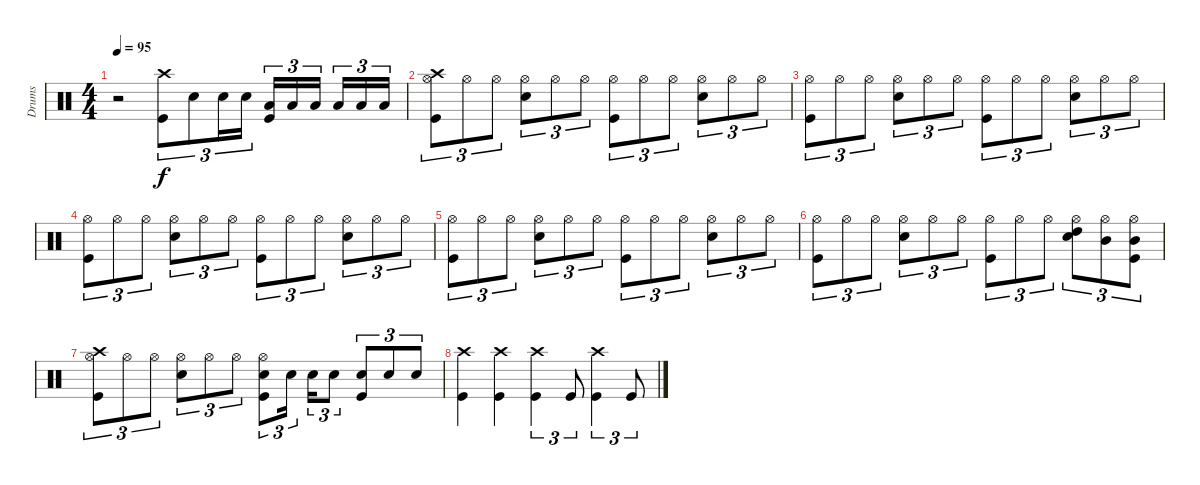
\track ("Drums" "Drums") {instrument percussion}
\staff {score}
\articulation defaults
\ts (4 4)
\tempo 95
\clef neutral
\ks c
r.2{dy f} ("Crash high (hit)" "Kick (hit)").8{tu (3 2)} "Electric Snare (hit)".8{tu (3 2)} "Electric Snare (hit)".16{tu (3 2)} "Electric Snare (hit)".16{tu (3 2)} ("Low Tom (hit)" "Kick (hit)").16{tu (3 2)} "Low Tom (hit)".16{tu (3 2)} "Low Tom (hit)".16{tu (3 2)} "Low Tom (hit)".16{tu (3 2)} "Low Floor Tom (hit)".16{tu (3 2)} "Low Floor Tom (hit)".16{tu (3 2)} |
("Crash high (hit)" "Hi-Hat (open)" "Kick (hit)").8{tu (3 2)} "Hi-Hat (open)".8{tu (3 2)} "Hi-Hat (open)".8{tu (3 2)} ("Hi-Hat (open)" "Electric Snare (hit)").8{tu (3 2)} "Hi-Hat (open)".8{tu (3 2)} "Hi-Hat (open)".8{tu (3 2)} ("Hi-Hat (open)" "Kick (hit)").8{tu (3 2)} "Hi-Hat (open)".8{tu (3 2)} "Hi-Hat (open)".8{tu (3 2)} ("Hi-Hat (open)" "Electric Snare (hit)").8{tu (3 2)} "Hi-Hat (open)".8{tu (3 2)} "Hi-Hat (open)".8{tu (3 2)} |
("Hi-Hat (open)" "Kick (hit)").8{tu (3 2)} "Hi-Hat (open)".8{tu (3 2)} "Hi-Hat (open)".8{tu (3 2)} ("Hi-Hat (open)" "Electric Snare (hit)").8{tu (3 2)} "Hi-Hat (open)".8{tu (3 2)} "Hi-Hat (open)".8{tu (3 2)} ("Hi-Hat (open)" "Kick (hit)").8{tu (3 2)} "Hi-Hat (open)".8{tu (3 2)} "Hi-Hat (open)".8{tu (3 2)} ("Hi-Hat (open)" "Electric Snare (hit)").8{tu (3 2)} "Hi-Hat (open)".8{tu (3 2)} "Hi-Hat (open)".8{tu (3 2)} |
("Hi-Hat (open)" "Kick (hit)").8{tu (3 2)} "Hi-Hat (open)".8{tu (3 2)} "Hi-Hat (open)".8{tu (3 2)} ("Hi-Hat (open)" "Electric Snare (hit)").8{tu (3 2)} "Hi-Hat (open)".8{tu (3 2)} "Hi-Hat (open)".8{tu (3 2)} ("Hi-Hat (open)" "Kick (hit)").8{tu (3 2)} "Hi-Hat (open)".8{tu (3 2)} "Hi-Hat (open)".8{tu (3 2)} ("Hi-Hat (open)" "Electric Snare (hit)").8{tu (3 2)} "Hi-Hat (open)".8{tu (3 2)} "Hi-Hat (open)".8{tu (3 2)} |
("Hi-Hat (open)" "Kick (hit)").8{tu (3 2)} "Hi-Hat (open)".8{tu (3 2)} "Hi-Hat (open)".8{tu (3 2)} ("Hi-Hat (open)" "Electric Snare (hit)").8{tu (3 2)} "Hi-Hat (open)".8{tu (3 2)} "Hi-Hat (open)".8{tu (3 2)} ("Hi-Hat (open)" "Kick (hit)").8{tu (3 2)} "Hi-Hat (open)".8{tu (3 2)} "Hi-Hat (open)".8{tu (3 2)} ("Hi-Hat (open)" "Electric Snare (hit)").8{tu (3 2)} "Hi-Hat (open)".8{tu (3 2)} "Hi-Hat (open)".8{tu (3 2)} |
("Hi-Hat (open)" "Kick (hit)").8{tu (3 2)} "Hi-Hat (open)".8{tu (3 2)} "Hi-Hat (open)".8{tu (3 2)} ("Hi-Hat (open)" "Electric Snare (hit)").8{tu (3 2)} "Hi-Hat (open)".8{tu (3 2)} "Hi-Hat (open)".8{tu (3 2)} ("Hi-Hat (open)" "Kick (hit)").8{tu (3 2)} "Hi-Hat (open)".8{tu (3 2)} "Hi-Hat (open)".8{tu (3 2)} ("Hi-Hat (open)" "High Tom (hit)" "Electric Snare (hit)").8{tu (3 2)} ("Hi-Hat (open)" "Mid Tom (hit)").8{tu (3 2)} ("Hi-Hat (open)" "Mid Tom (hit)" "Kick (hit)").8{tu (3 2)} |
("Crash high (hit)" "Hi-Hat (open)" "Kick (hit)").8{tu (3 2)} "Hi-Hat (open)".8{tu (3 2)} "Hi-Hat (open)".8{tu (3 2)} ("Hi-Hat (open)" "Electric Snare (hit)").8{tu (3 2)} "Hi-Hat (open)".8{tu (3 2)} "Hi-Hat (open)".8{tu (3 2)} ("Hi-Hat (open)" "Electric Snare (hit)" "Kick (hit)").8{tu (3 2)} "Electric Snare (hit)".16{tu (3 2)} "Electric Snare (hit)".16{tu (3 2)} "Electric Snare (hit)".8{tu (3 2)} ("Electric Snare (hit)" "Kick (hit)").8{tu (3 2)} "Electric Snare (hit)".8{tu (3 2)} "Electric Snare (hit)".8{tu (3 2)} |
("Crash high (hit)" "Kick (hit)").4 ("Crash high (hit)" "Kick (hit)").4 ("Crash high (hit)" "Kick (hit)").4{tu (3 2)} "Kick (hit)".8{tu (3 2)} ("Crash high (hit)" "Kick (hit)").4{tu (3 2)} "Kick (hit)".8{tu (3 2)}
